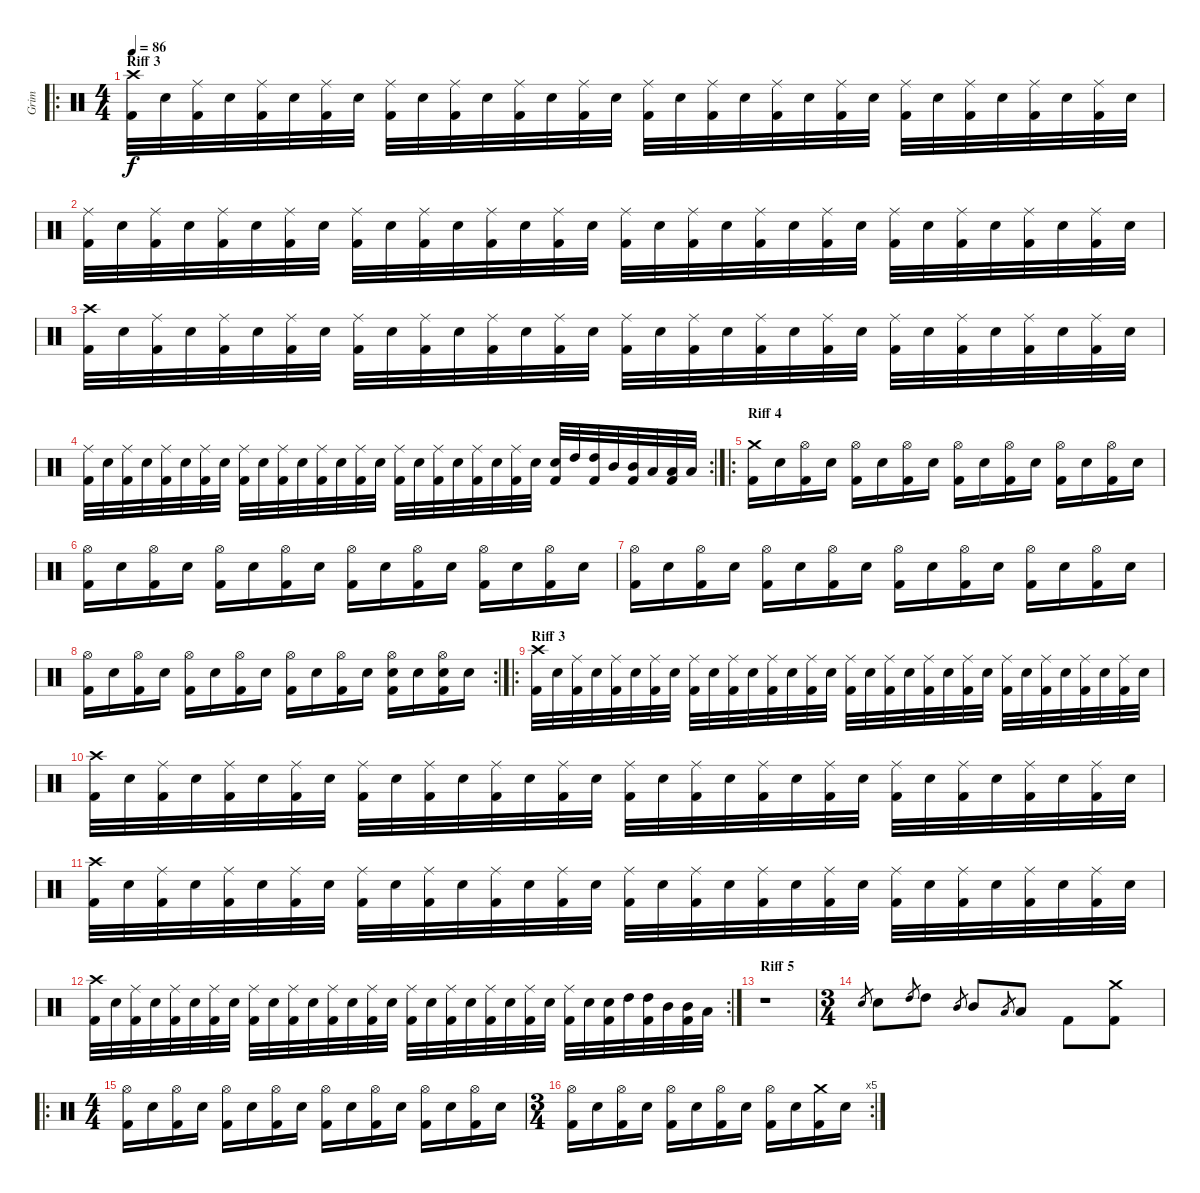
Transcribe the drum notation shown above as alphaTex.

\track ("Grim" "Grim") {instrument percussion}
\staff {score}
\articulation defaults
\ro
\ts (4 4)
\section ("" "Riff 3")
\tempo 86
\clef neutral
\ks c
("Crash high (hit)" "Kick (hit) 2").32{dy f} "Electric Snare (hit)".32 ("Ride (middle)" "Kick (hit) 2").32 "Electric Snare (hit)".32 ("Ride (middle)" "Kick (hit) 2").32 "Electric Snare (hit)".32 ("Ride (middle)" "Kick (hit) 2").32 "Electric Snare (hit)".32 ("Ride (middle)" "Kick (hit) 2").32 "Electric Snare (hit)".32 ("Ride (middle)" "Kick (hit) 2").32 "Electric Snare (hit)".32 ("Ride (middle)" "Kick (hit) 2").32 "Electric Snare (hit)".32 ("Ride (middle)" "Kick (hit) 2").32 "Electric Snare (hit)".32 ("Ride (middle)" "Kick (hit) 2").32 "Electric Snare (hit)".32 ("Ride (middle)" "Kick (hit) 2").32 "Electric Snare (hit)".32 ("Ride (middle)" "Kick (hit) 2").32 "Electric Snare (hit)".32 ("Ride (middle)" "Kick (hit) 2").32 "Electric Snare (hit)".32 ("Ride (middle)" "Kick (hit) 2").32 "Electric Snare (hit)".32 ("Ride (middle)" "Kick (hit) 2").32 "Electric Snare (hit)".32 ("Ride (middle)" "Kick (hit) 2").32 "Electric Snare (hit)".32 ("Ride (middle)" "Kick (hit) 2").32 "Electric Snare (hit)".32 |
("Ride (middle)" "Kick (hit) 2").32 "Electric Snare (hit)".32 ("Ride (middle)" "Kick (hit) 2").32 "Electric Snare (hit)".32 ("Ride (middle)" "Kick (hit) 2").32 "Electric Snare (hit)".32 ("Ride (middle)" "Kick (hit) 2").32 "Electric Snare (hit)".32 ("Ride (middle)" "Kick (hit) 2").32 "Electric Snare (hit)".32 ("Ride (middle)" "Kick (hit) 2").32 "Electric Snare (hit)".32 ("Ride (middle)" "Kick (hit) 2").32 "Electric Snare (hit)".32 ("Ride (middle)" "Kick (hit) 2").32 "Electric Snare (hit)".32 ("Ride (middle)" "Kick (hit) 2").32 "Electric Snare (hit)".32 ("Ride (middle)" "Kick (hit) 2").32 "Electric Snare (hit)".32 ("Ride (middle)" "Kick (hit) 2").32 "Electric Snare (hit)".32 ("Ride (middle)" "Kick (hit) 2").32 "Electric Snare (hit)".32 ("Ride (middle)" "Kick (hit) 2").32 "Electric Snare (hit)".32 ("Ride (middle)" "Kick (hit) 2").32 "Electric Snare (hit)".32 ("Ride (middle)" "Kick (hit) 2").32 "Electric Snare (hit)".32 ("Ride (middle)" "Kick (hit) 2").32 "Electric Snare (hit)".32 |
("Crash high (hit)" "Kick (hit) 2").32 "Electric Snare (hit)".32 ("Ride (middle)" "Kick (hit) 2").32 "Electric Snare (hit)".32 ("Ride (middle)" "Kick (hit) 2").32 "Electric Snare (hit)".32 ("Ride (middle)" "Kick (hit) 2").32 "Electric Snare (hit)".32 ("Ride (middle)" "Kick (hit) 2").32 "Electric Snare (hit)".32 ("Ride (middle)" "Kick (hit) 2").32 "Electric Snare (hit)".32 ("Ride (middle)" "Kick (hit) 2").32 "Electric Snare (hit)".32 ("Ride (middle)" "Kick (hit) 2").32 "Electric Snare (hit)".32 ("Ride (middle)" "Kick (hit) 2").32 "Electric Snare (hit)".32 ("Ride (middle)" "Kick (hit) 2").32 "Electric Snare (hit)".32 ("Ride (middle)" "Kick (hit) 2").32 "Electric Snare (hit)".32 ("Ride (middle)" "Kick (hit) 2").32 "Electric Snare (hit)".32 ("Ride (middle)" "Kick (hit) 2").32 "Electric Snare (hit)".32 ("Ride (middle)" "Kick (hit) 2").32 "Electric Snare (hit)".32 ("Ride (middle)" "Kick (hit) 2").32 "Electric Snare (hit)".32 ("Ride (middle)" "Kick (hit) 2").32 "Electric Snare (hit)".32 |
\rc 2
("Ride (middle)" "Kick (hit) 2").32 "Electric Snare (hit)".32 ("Ride (middle)" "Kick (hit) 2").32 "Electric Snare (hit)".32 ("Ride (middle)" "Kick (hit) 2").32 "Electric Snare (hit)".32 ("Ride (middle)" "Kick (hit) 2").32 "Electric Snare (hit)".32 ("Ride (middle)" "Kick (hit) 2").32 "Electric Snare (hit)".32 ("Ride (middle)" "Kick (hit) 2").32 "Electric Snare (hit)".32 ("Ride (middle)" "Kick (hit) 2").32 "Electric Snare (hit)".32 ("Ride (middle)" "Kick (hit) 2").32 "Electric Snare (hit)".32 ("Ride (middle)" "Kick (hit) 2").32 "Electric Snare (hit)".32 ("Ride (middle)" "Kick (hit) 2").32 "Electric Snare (hit)".32 ("Ride (middle)" "Kick (hit) 2").32 "Electric Snare (hit)".32 ("Ride (middle)" "Kick (hit) 2").32 "Electric Snare (hit)".32 ("Electric Snare (hit)" "Kick (hit) 2").32 "High Tom (hit)".32 ("High Tom (hit)" "Kick (hit) 2").32 "Mid Tom (hit)".32 ("Mid Tom (hit)" "Kick (hit) 2").32 "Low Tom (hit)".32 ("Low Tom (hit)" "Kick (hit) 2").32 "Low Tom (hit)".32 |
\ro
\section ("" "Riff 4")
("Crash medium (hit)" "Kick (hit) 2").16 "Electric Snare (hit)".16 ("Hi-Hat (open)" "Kick (hit) 2").16 "Electric Snare (hit)".16 ("Hi-Hat (open)" "Kick (hit) 2").16 "Electric Snare (hit)".16 ("Hi-Hat (open)" "Kick (hit) 2").16 "Electric Snare (hit)".16 ("Hi-Hat (open)" "Kick (hit) 2").16 "Electric Snare (hit)".16 ("Hi-Hat (open)" "Kick (hit) 2").16 "Electric Snare (hit)".16 ("Hi-Hat (open)" "Kick (hit) 2").16 "Electric Snare (hit)".16 ("Hi-Hat (open)" "Kick (hit) 2").16 "Electric Snare (hit)".16 |
("Hi-Hat (open)" "Kick (hit) 2").16 "Electric Snare (hit)".16 ("Hi-Hat (open)" "Kick (hit) 2").16 "Electric Snare (hit)".16 ("Hi-Hat (open)" "Kick (hit) 2").16 "Electric Snare (hit)".16 ("Hi-Hat (open)" "Kick (hit) 2").16 "Electric Snare (hit)".16 ("Hi-Hat (open)" "Kick (hit) 2").16 "Electric Snare (hit)".16 ("Hi-Hat (open)" "Kick (hit) 2").16 "Electric Snare (hit)".16 ("Hi-Hat (open)" "Kick (hit) 2").16 "Electric Snare (hit)".16 ("Hi-Hat (open)" "Kick (hit) 2").16 "Electric Snare (hit)".16 |
("Hi-Hat (open)" "Kick (hit) 2").16 "Electric Snare (hit)".16 ("Hi-Hat (open)" "Kick (hit) 2").16 "Electric Snare (hit)".16 ("Hi-Hat (open)" "Kick (hit) 2").16 "Electric Snare (hit)".16 ("Hi-Hat (open)" "Kick (hit) 2").16 "Electric Snare (hit)".16 ("Hi-Hat (open)" "Kick (hit) 2").16 "Electric Snare (hit)".16 ("Hi-Hat (open)" "Kick (hit) 2").16 "Electric Snare (hit)".16 ("Hi-Hat (open)" "Kick (hit) 2").16 "Electric Snare (hit)".16 ("Hi-Hat (open)" "Kick (hit) 2").16 "Electric Snare (hit)".16 |
\rc 2
("Hi-Hat (open)" "Kick (hit) 2").16 "Electric Snare (hit)".16 ("Hi-Hat (open)" "Kick (hit) 2").16 "Electric Snare (hit)".16 ("Hi-Hat (open)" "Kick (hit) 2").16 "Electric Snare (hit)".16 ("Hi-Hat (open)" "Kick (hit) 2").16 "Electric Snare (hit)".16 ("Hi-Hat (open)" "Kick (hit) 2").16 "Electric Snare (hit)".16 ("Hi-Hat (open)" "Kick (hit) 2").16 "Electric Snare (hit)".16 ("Hi-Hat (open)" "Electric Snare (hit)" "Kick (hit) 2").16 "Electric Snare (hit)".16 ("Hi-Hat (open)" "Electric Snare (hit)" "Kick (hit) 2").16 "Electric Snare (hit)".16 |
\ro
\section ("" "Riff 3")
("Crash high (hit)" "Kick (hit) 2").32 "Electric Snare (hit)".32 ("Ride (middle)" "Kick (hit) 2").32 "Electric Snare (hit)".32 ("Ride (middle)" "Kick (hit) 2").32 "Electric Snare (hit)".32 ("Ride (middle)" "Kick (hit) 2").32 "Electric Snare (hit)".32 ("Ride (middle)" "Kick (hit) 2").32 "Electric Snare (hit)".32 ("Ride (middle)" "Kick (hit) 2").32 "Electric Snare (hit)".32 ("Ride (middle)" "Kick (hit) 2").32 "Electric Snare (hit)".32 ("Ride (middle)" "Kick (hit) 2").32 "Electric Snare (hit)".32 ("Ride (middle)" "Kick (hit) 2").32 "Electric Snare (hit)".32 ("Ride (middle)" "Kick (hit) 2").32 "Electric Snare (hit)".32 ("Ride (middle)" "Kick (hit) 2").32 "Electric Snare (hit)".32 ("Ride (middle)" "Kick (hit) 2").32 "Electric Snare (hit)".32 ("Ride (middle)" "Kick (hit) 2").32 "Electric Snare (hit)".32 ("Ride (middle)" "Kick (hit) 2").32 "Electric Snare (hit)".32 ("Ride (middle)" "Kick (hit) 2").32 "Electric Snare (hit)".32 ("Ride (middle)" "Kick (hit) 2").32 "Electric Snare (hit)".32 |
("Crash high (hit)" "Kick (hit) 2").32 "Electric Snare (hit)".32 ("Ride (middle)" "Kick (hit) 2").32 "Electric Snare (hit)".32 ("Ride (middle)" "Kick (hit) 2").32 "Electric Snare (hit)".32 ("Ride (middle)" "Kick (hit) 2").32 "Electric Snare (hit)".32 ("Ride (middle)" "Kick (hit) 2").32 "Electric Snare (hit)".32 ("Ride (middle)" "Kick (hit) 2").32 "Electric Snare (hit)".32 ("Ride (middle)" "Kick (hit) 2").32 "Electric Snare (hit)".32 ("Ride (middle)" "Kick (hit) 2").32 "Electric Snare (hit)".32 ("Ride (middle)" "Kick (hit) 2").32 "Electric Snare (hit)".32 ("Ride (middle)" "Kick (hit) 2").32 "Electric Snare (hit)".32 ("Ride (middle)" "Kick (hit) 2").32 "Electric Snare (hit)".32 ("Ride (middle)" "Kick (hit) 2").32 "Electric Snare (hit)".32 ("Ride (middle)" "Kick (hit) 2").32 "Electric Snare (hit)".32 ("Ride (middle)" "Kick (hit) 2").32 "Electric Snare (hit)".32 ("Ride (middle)" "Kick (hit) 2").32 "Electric Snare (hit)".32 ("Ride (middle)" "Kick (hit) 2").32 "Electric Snare (hit)".32 |
("Crash high (hit)" "Kick (hit) 2").32 "Electric Snare (hit)".32 ("Ride (middle)" "Kick (hit) 2").32 "Electric Snare (hit)".32 ("Ride (middle)" "Kick (hit) 2").32 "Electric Snare (hit)".32 ("Ride (middle)" "Kick (hit) 2").32 "Electric Snare (hit)".32 ("Ride (middle)" "Kick (hit) 2").32 "Electric Snare (hit)".32 ("Ride (middle)" "Kick (hit) 2").32 "Electric Snare (hit)".32 ("Ride (middle)" "Kick (hit) 2").32 "Electric Snare (hit)".32 ("Ride (middle)" "Kick (hit) 2").32 "Electric Snare (hit)".32 ("Ride (middle)" "Kick (hit) 2").32 "Electric Snare (hit)".32 ("Ride (middle)" "Kick (hit) 2").32 "Electric Snare (hit)".32 ("Ride (middle)" "Kick (hit) 2").32 "Electric Snare (hit)".32 ("Ride (middle)" "Kick (hit) 2").32 "Electric Snare (hit)".32 ("Ride (middle)" "Kick (hit) 2").32 "Electric Snare (hit)".32 ("Ride (middle)" "Kick (hit) 2").32 "Electric Snare (hit)".32 ("Ride (middle)" "Kick (hit) 2").32 "Electric Snare (hit)".32 ("Ride (middle)" "Kick (hit) 2").32 "Electric Snare (hit)".32 |
\rc 2
("Crash high (hit)" "Kick (hit) 2").32 "Electric Snare (hit)".32 ("Ride (middle)" "Kick (hit) 2").32 "Electric Snare (hit)".32 ("Ride (middle)" "Kick (hit) 2").32 "Electric Snare (hit)".32 ("Ride (middle)" "Kick (hit) 2").32 "Electric Snare (hit)".32 ("Ride (middle)" "Kick (hit) 2").32 "Electric Snare (hit)".32 ("Ride (middle)" "Kick (hit) 2").32 "Electric Snare (hit)".32 ("Ride (middle)" "Kick (hit) 2").32 "Electric Snare (hit)".32 ("Ride (middle)" "Kick (hit) 2").32 "Electric Snare (hit)".32 ("Ride (middle)" "Kick (hit) 2").32 "Electric Snare (hit)".32 ("Ride (middle)" "Kick (hit) 2").32 "Electric Snare (hit)".32 ("Ride (middle)" "Kick (hit) 2").32 "Electric Snare (hit)".32 ("Ride (middle)" "Kick (hit) 2").32 "Electric Snare (hit)".32 ("Ride (middle)" "Kick (hit) 2").32 "Electric Snare (hit)".32 ("Electric Snare (hit)" "Kick (hit) 2").32 "High Tom (hit)".32 ("High Tom (hit)" "Kick (hit) 2").32 "Mid Tom (hit)".32 ("Mid Tom (hit)" "Kick (hit) 2").32 "Low Tom (hit)".32 |
\section ("" "Riff 5")
r.1 |
\ts (3 4)
"Electric Snare (hit)".8{gr} "Electric Snare (hit)".8 "High Tom (hit)".8{gr} "High Tom (hit)".8 "Mid Tom (hit)".8{gr} "Mid Tom (hit)".8 "Low Tom (hit)".8{gr} "Low Tom (hit)".8 "Kick (hit) 2".8 ("Crash medium (hit)" "Kick (hit) 2").8 |
\ro
\ts (4 4)
("Hi-Hat (open)" "Kick (hit) 2").16 "Electric Snare (hit)".16 ("Hi-Hat (open)" "Kick (hit) 2").16 "Electric Snare (hit)".16 ("Hi-Hat (open)" "Kick (hit) 2").16 "Electric Snare (hit)".16 ("Hi-Hat (open)" "Kick (hit) 2").16 "Electric Snare (hit)".16 ("Hi-Hat (open)" "Kick (hit) 2").16 "Electric Snare (hit)".16 ("Hi-Hat (open)" "Kick (hit) 2").16 "Electric Snare (hit)".16 ("Hi-Hat (open)" "Kick (hit) 2").16 "Electric Snare (hit)".16 ("Hi-Hat (open)" "Kick (hit) 2").16 "Electric Snare (hit)".16 |
\rc 5
\ts (3 4)
("Hi-Hat (open)" "Kick (hit) 2").16 "Electric Snare (hit)".16 ("Hi-Hat (open)" "Kick (hit) 2").16 "Electric Snare (hit)".16 ("Hi-Hat (open)" "Kick (hit) 2").16 "Electric Snare (hit)".16 ("Hi-Hat (open)" "Kick (hit) 2").16 "Electric Snare (hit)".16 ("Hi-Hat (open)" "Kick (hit) 2").16 "Electric Snare (hit)".16 ("Crash medium (hit)" "Kick (hit) 2").16 "Electric Snare (hit)".16
